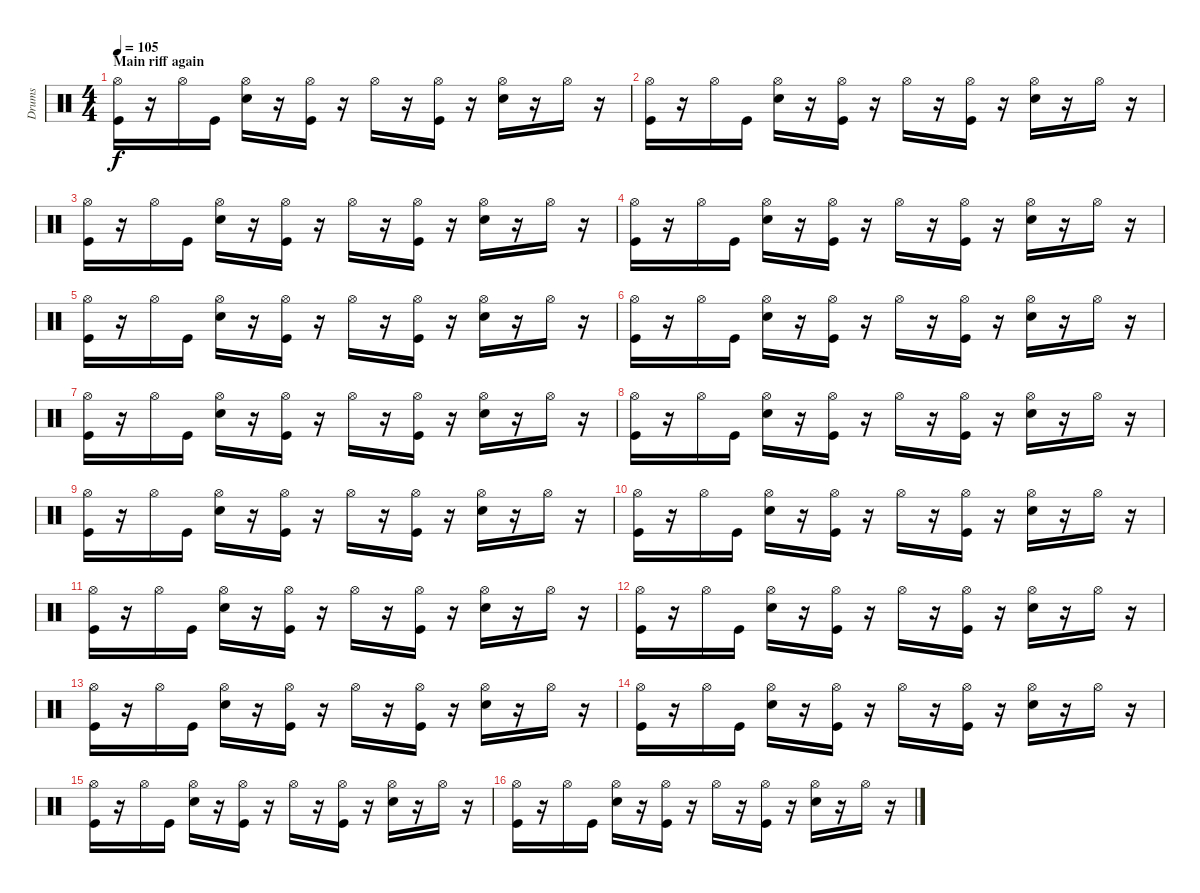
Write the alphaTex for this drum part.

\track ("Drums" "Drums") {instrument percussion}
\staff {score}
\articulation defaults
\ts (4 4)
\section ("" "Main riff again")
\tempo 105
\clef neutral
\ks c
("Hi-Hat (open)" "Kick (hit)").16{dy f} r.16 "Hi-Hat (open)".16 "Kick (hit)".16 ("Hi-Hat (open)" "Snare (hit) 2").16 r.16 ("Hi-Hat (open)" "Kick (hit)").16 r.16 "Hi-Hat (open)".16 r.16 ("Hi-Hat (open)" "Kick (hit)").16 r.16 ("Hi-Hat (open)" "Snare (hit) 2").16 r.16 "Hi-Hat (open)".16 r.16 |
("Hi-Hat (open)" "Kick (hit)").16 r.16 "Hi-Hat (open)".16 "Kick (hit)".16 ("Hi-Hat (open)" "Snare (hit) 2").16 r.16 ("Hi-Hat (open)" "Kick (hit)").16 r.16 "Hi-Hat (open)".16 r.16 ("Hi-Hat (open)" "Kick (hit)").16 r.16 ("Hi-Hat (open)" "Snare (hit) 2").16 r.16 "Hi-Hat (open)".16 r.16 |
("Hi-Hat (open)" "Kick (hit)").16 r.16 "Hi-Hat (open)".16 "Kick (hit)".16 ("Hi-Hat (open)" "Snare (hit) 2").16 r.16 ("Hi-Hat (open)" "Kick (hit)").16 r.16 "Hi-Hat (open)".16 r.16 ("Hi-Hat (open)" "Kick (hit)").16 r.16 ("Hi-Hat (open)" "Snare (hit) 2").16 r.16 "Hi-Hat (open)".16 r.16 |
("Hi-Hat (open)" "Kick (hit)").16 r.16 "Hi-Hat (open)".16 "Kick (hit)".16 ("Hi-Hat (open)" "Snare (hit) 2").16 r.16 ("Hi-Hat (open)" "Kick (hit)").16 r.16 "Hi-Hat (open)".16 r.16 ("Hi-Hat (open)" "Kick (hit)").16 r.16 ("Hi-Hat (open)" "Snare (hit) 2").16 r.16 "Hi-Hat (open)".16 r.16 |
("Hi-Hat (open)" "Kick (hit)").16 r.16 "Hi-Hat (open)".16 "Kick (hit)".16 ("Hi-Hat (open)" "Snare (hit) 2").16 r.16 ("Hi-Hat (open)" "Kick (hit)").16 r.16 "Hi-Hat (open)".16 r.16 ("Hi-Hat (open)" "Kick (hit)").16 r.16 ("Hi-Hat (open)" "Snare (hit) 2").16 r.16 "Hi-Hat (open)".16 r.16 |
("Hi-Hat (open)" "Kick (hit)").16 r.16 "Hi-Hat (open)".16 "Kick (hit)".16 ("Hi-Hat (open)" "Snare (hit) 2").16 r.16 ("Hi-Hat (open)" "Kick (hit)").16 r.16 "Hi-Hat (open)".16 r.16 ("Hi-Hat (open)" "Kick (hit)").16 r.16 ("Hi-Hat (open)" "Snare (hit) 2").16 r.16 "Hi-Hat (open)".16 r.16 |
("Hi-Hat (open)" "Kick (hit)").16 r.16 "Hi-Hat (open)".16 "Kick (hit)".16 ("Hi-Hat (open)" "Snare (hit) 2").16 r.16 ("Hi-Hat (open)" "Kick (hit)").16 r.16 "Hi-Hat (open)".16 r.16 ("Hi-Hat (open)" "Kick (hit)").16 r.16 ("Hi-Hat (open)" "Snare (hit) 2").16 r.16 "Hi-Hat (open)".16 r.16 |
("Hi-Hat (open)" "Kick (hit)").16 r.16 "Hi-Hat (open)".16 "Kick (hit)".16 ("Hi-Hat (open)" "Snare (hit) 2").16 r.16 ("Hi-Hat (open)" "Kick (hit)").16 r.16 "Hi-Hat (open)".16 r.16 ("Hi-Hat (open)" "Kick (hit)").16 r.16 ("Hi-Hat (open)" "Snare (hit) 2").16 r.16 "Hi-Hat (open)".16 r.16 |
("Hi-Hat (open)" "Kick (hit)").16 r.16 "Hi-Hat (open)".16 "Kick (hit)".16 ("Hi-Hat (open)" "Snare (hit) 2").16 r.16 ("Hi-Hat (open)" "Kick (hit)").16 r.16 "Hi-Hat (open)".16 r.16 ("Hi-Hat (open)" "Kick (hit)").16 r.16 ("Hi-Hat (open)" "Snare (hit) 2").16 r.16 "Hi-Hat (open)".16 r.16 |
("Hi-Hat (open)" "Kick (hit)").16 r.16 "Hi-Hat (open)".16 "Kick (hit)".16 ("Hi-Hat (open)" "Snare (hit) 2").16 r.16 ("Hi-Hat (open)" "Kick (hit)").16 r.16 "Hi-Hat (open)".16 r.16 ("Hi-Hat (open)" "Kick (hit)").16 r.16 ("Hi-Hat (open)" "Snare (hit) 2").16 r.16 "Hi-Hat (open)".16 r.16 |
("Hi-Hat (open)" "Kick (hit)").16 r.16 "Hi-Hat (open)".16 "Kick (hit)".16 ("Hi-Hat (open)" "Snare (hit) 2").16 r.16 ("Hi-Hat (open)" "Kick (hit)").16 r.16 "Hi-Hat (open)".16 r.16 ("Hi-Hat (open)" "Kick (hit)").16 r.16 ("Hi-Hat (open)" "Snare (hit) 2").16 r.16 "Hi-Hat (open)".16 r.16 |
("Hi-Hat (open)" "Kick (hit)").16 r.16 "Hi-Hat (open)".16 "Kick (hit)".16 ("Hi-Hat (open)" "Snare (hit) 2").16 r.16 ("Hi-Hat (open)" "Kick (hit)").16 r.16 "Hi-Hat (open)".16 r.16 ("Hi-Hat (open)" "Kick (hit)").16 r.16 ("Hi-Hat (open)" "Snare (hit) 2").16 r.16 "Hi-Hat (open)".16 r.16 |
("Hi-Hat (open)" "Kick (hit)").16 r.16 "Hi-Hat (open)".16 "Kick (hit)".16 ("Hi-Hat (open)" "Snare (hit) 2").16 r.16 ("Hi-Hat (open)" "Kick (hit)").16 r.16 "Hi-Hat (open)".16 r.16 ("Hi-Hat (open)" "Kick (hit)").16 r.16 ("Hi-Hat (open)" "Snare (hit) 2").16 r.16 "Hi-Hat (open)".16 r.16 |
("Hi-Hat (open)" "Kick (hit)").16 r.16 "Hi-Hat (open)".16 "Kick (hit)".16 ("Hi-Hat (open)" "Snare (hit) 2").16 r.16 ("Hi-Hat (open)" "Kick (hit)").16 r.16 "Hi-Hat (open)".16 r.16 ("Hi-Hat (open)" "Kick (hit)").16 r.16 ("Hi-Hat (open)" "Snare (hit) 2").16 r.16 "Hi-Hat (open)".16 r.16 |
("Hi-Hat (open)" "Kick (hit)").16 r.16 "Hi-Hat (open)".16 "Kick (hit)".16 ("Hi-Hat (open)" "Snare (hit) 2").16 r.16 ("Hi-Hat (open)" "Kick (hit)").16 r.16 "Hi-Hat (open)".16 r.16 ("Hi-Hat (open)" "Kick (hit)").16 r.16 ("Hi-Hat (open)" "Snare (hit) 2").16 r.16 "Hi-Hat (open)".16 r.16 |
("Hi-Hat (open)" "Kick (hit)").16 r.16 "Hi-Hat (open)".16 "Kick (hit)".16 ("Hi-Hat (open)" "Snare (hit) 2").16 r.16 ("Hi-Hat (open)" "Kick (hit)").16 r.16 "Hi-Hat (open)".16 r.16 ("Hi-Hat (open)" "Kick (hit)").16 r.16 ("Hi-Hat (open)" "Snare (hit) 2").16 r.16 "Hi-Hat (open)".16 r.16
